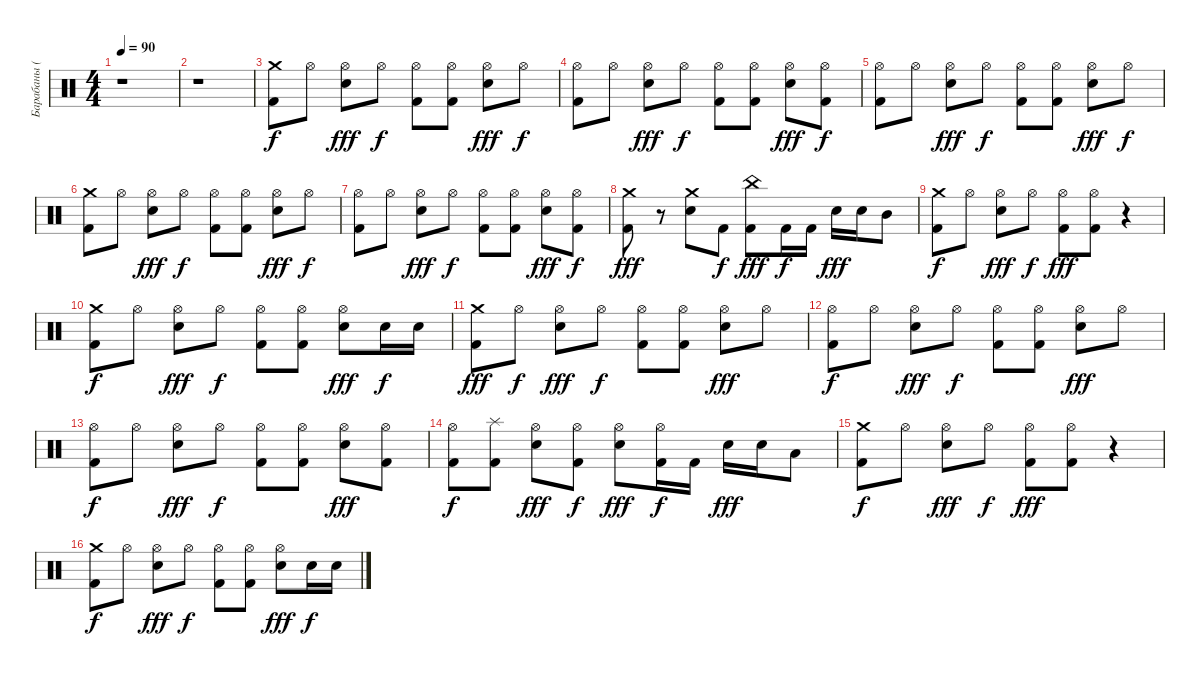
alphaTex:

\track ("Барабаны (Илья)" "Барабаны (") {instrument percussion}
\staff {score}
\articulation defaults
\ts (4 4)
\tempo 90
\clef neutral
\ks c
r.1{dy fff} |
r.1 |
("Kick (hit) 2" "Crash medium (hit)").8{dy f} "Hi-Hat (open)".8 ("Snare (hit) 2" "Hi-Hat (open)").8{dy fff} "Hi-Hat (open)".8{dy f} ("Kick (hit) 2" "Hi-Hat (open)").8 ("Kick (hit) 2" "Hi-Hat (open)").8 ("Hi-Hat (open)" "Snare (hit) 2").8{dy fff} "Hi-Hat (open)".8{dy f} |
("Hi-Hat (open)" "Kick (hit) 2").8 "Hi-Hat (open)".8 ("Snare (hit) 2" "Hi-Hat (open)").8{dy fff} "Hi-Hat (open)".8{dy f} ("Hi-Hat (open)" "Kick (hit) 2").8 ("Kick (hit) 2" "Hi-Hat (open)").8 ("Snare (hit) 2" "Hi-Hat (open)").8{dy fff} ("Kick (hit) 2" "Hi-Hat (open)").8{dy f} |
("Kick (hit) 2" "Hi-Hat (open)").8 "Hi-Hat (open)".8 ("Snare (hit) 2" "Hi-Hat (open)").8{dy fff} "Hi-Hat (open)".8{dy f} ("Kick (hit) 2" "Hi-Hat (open)").8 ("Hi-Hat (open)" "Kick (hit) 2").8 ("Snare (hit) 2" "Hi-Hat (open)").8{dy fff} "Hi-Hat (open)".8{dy f} |
("Kick (hit) 2" "Crash medium (hit)").8 "Hi-Hat (open)".8 ("Snare (hit) 2" "Hi-Hat (open)").8{dy fff} "Hi-Hat (open)".8{dy f} ("Kick (hit) 2" "Hi-Hat (open)").8 ("Kick (hit) 2" "Hi-Hat (open)").8 ("Hi-Hat (open)" "Snare (hit) 2").8{dy fff} "Hi-Hat (open)".8{dy f} |
("Hi-Hat (open)" "Kick (hit) 2").8 "Hi-Hat (open)".8 ("Snare (hit) 2" "Hi-Hat (open)").8{dy fff} "Hi-Hat (open)".8{dy f} ("Hi-Hat (open)" "Kick (hit) 2").8 ("Kick (hit) 2" "Hi-Hat (open)").8 ("Snare (hit) 2" "Hi-Hat (open)").8{dy fff} ("Kick (hit) 2" "Hi-Hat (open)").8{dy f} |
("Crash medium (hit)" "Kick (hit) 2").8{dy fff} r.8 ("Crash medium (hit)" "Snare (hit) 2").8 "Kick (hit) 2".8{dy f} ("China (hit)" "Kick (hit) 2").8{dy fff} "Kick (hit) 2".16{dy f} "Kick (hit) 2".16 "Snare (hit) 2".16{dy fff} "Snare (hit) 2".16 "Mid Tom (hit)".8 |
("Crash medium (hit)" "Kick (hit) 2").8{dy f} "Hi-Hat (open)".8 ("Hi-Hat (open)" "Snare (hit) 2").8{dy fff} "Hi-Hat (open)".8{dy f} ("Hi-Hat (open)" "Kick (hit) 2").8{dy fff} ("Hi-Hat (open)" "Kick (hit) 2").8 r.4 |
("Crash medium (hit)" "Kick (hit) 2").8{dy f} "Hi-Hat (open)".8 ("Snare (hit) 2" "Hi-Hat (open)").8{dy fff} "Hi-Hat (open)".8{dy f} ("Kick (hit) 2" "Hi-Hat (open)").8 ("Kick (hit) 2" "Hi-Hat (open)").8 ("Snare (hit) 2" "Hi-Hat (open)").8{dy fff} "Snare (hit) 2".16{dy f} "Snare (hit) 2".16 |
("Crash medium (hit)" "Kick (hit) 2").8{dy fff} "Hi-Hat (open)".8{dy f} ("Snare (hit) 2" "Hi-Hat (open)").8{dy fff} "Hi-Hat (open)".8{dy f} ("Hi-Hat (open)" "Kick (hit) 2").8 ("Hi-Hat (open)" "Kick (hit) 2").8 ("Snare (hit) 2" "Hi-Hat (open)").8{dy fff} "Hi-Hat (open)".8 |
("Hi-Hat (open)" "Kick (hit) 2").8{dy f} "Hi-Hat (open)".8 ("Snare (hit) 2" "Hi-Hat (open)").8{dy fff} "Hi-Hat (open)".8{dy f} ("Kick (hit) 2" "Hi-Hat (open)").8 ("Hi-Hat (open)" "Kick (hit) 2").8 ("Snare (hit) 2" "Hi-Hat (open)").8{dy fff} "Hi-Hat (open)".8 |
("Hi-Hat (open)" "Kick (hit) 2").8{dy f} "Hi-Hat (open)".8 ("Snare (hit) 2" "Hi-Hat (open)").8{dy fff} "Hi-Hat (open)".8{dy f} ("Kick (hit) 2" "Hi-Hat (open)").8 ("Hi-Hat (open)" "Kick (hit) 2").8 ("Snare (hit) 2" "Hi-Hat (open)").8{dy fff} ("Kick (hit) 2" "Hi-Hat (open)").8 |
("Hi-Hat (open)" "Kick (hit) 2").8{dy f} ("Kick (hit) 2" "Splash (hit)").8 ("Hi-Hat (open)" "Snare (hit) 2").8{dy fff} ("Kick (hit) 2" "Hi-Hat (open)").8{dy f} ("Snare (hit) 2" "Hi-Hat (open)").8{dy fff} ("Hi-Hat (open)" "Kick (hit) 2").16{dy f} "Kick (hit) 2".16 "Snare (hit) 2".16{dy fff} "Snare (hit) 2".16 "Low Tom (hit)".8 |
("Crash medium (hit)" "Kick (hit) 2").8{dy f} "Hi-Hat (open)".8 ("Hi-Hat (open)" "Snare (hit) 2").8{dy fff} "Hi-Hat (open)".8{dy f} ("Hi-Hat (open)" "Kick (hit) 2").8{dy fff} ("Hi-Hat (open)" "Kick (hit) 2").8 r.4 |
("Crash medium (hit)" "Kick (hit) 2").8{dy f} "Hi-Hat (open)".8 ("Snare (hit) 2" "Hi-Hat (open)").8{dy fff} "Hi-Hat (open)".8{dy f} ("Kick (hit) 2" "Hi-Hat (open)").8 ("Kick (hit) 2" "Hi-Hat (open)").8 ("Snare (hit) 2" "Hi-Hat (open)").8{dy fff} "Snare (hit) 2".16{dy f} "Snare (hit) 2".16
